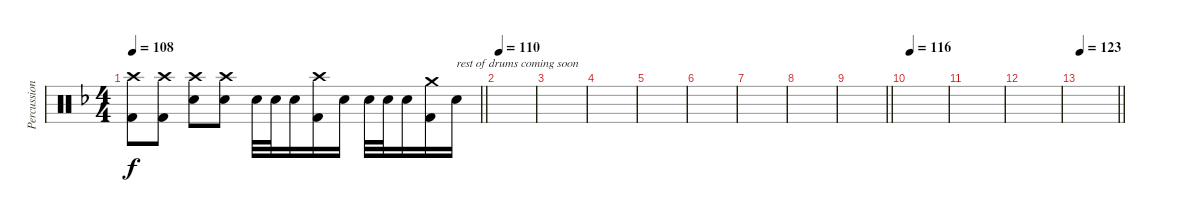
\track ("Percussion" "Percussion") {instrument percussion}
\staff {score}
\articulation defaults
\ts (4 4)
\tempo 108
\clef neutral
\barLineRight lightlight
\ks f
("Crash high (hit)" "Kick (hit) 2").8{dy f} ("Crash high (hit)" "Kick (hit) 2").8 ("Crash high (hit)" "Snare (hit) 2").8 ("Crash high (hit)" "Snare (hit) 2").8 "Snare (hit) 2".32 "Snare (hit) 2".32 "Snare (hit) 2".16 ("Crash high (hit)" "Kick (hit) 2").16 "Snare (hit) 2".16 "Snare (hit) 2".32 "Snare (hit) 2".32 "Snare (hit) 2".16 ("Crash medium (hit)" "Kick (hit) 2").16 "Snare (hit) 2".16{txt "rest of drums coming soon"} |
\section ("" "")
\tempo 110
|
|
|
|
|
|
|
\barLineRight lightlight
|
\section ("" "")
\tempo 116
|
|
|
\tempo 123
\barLineRight lightlight
